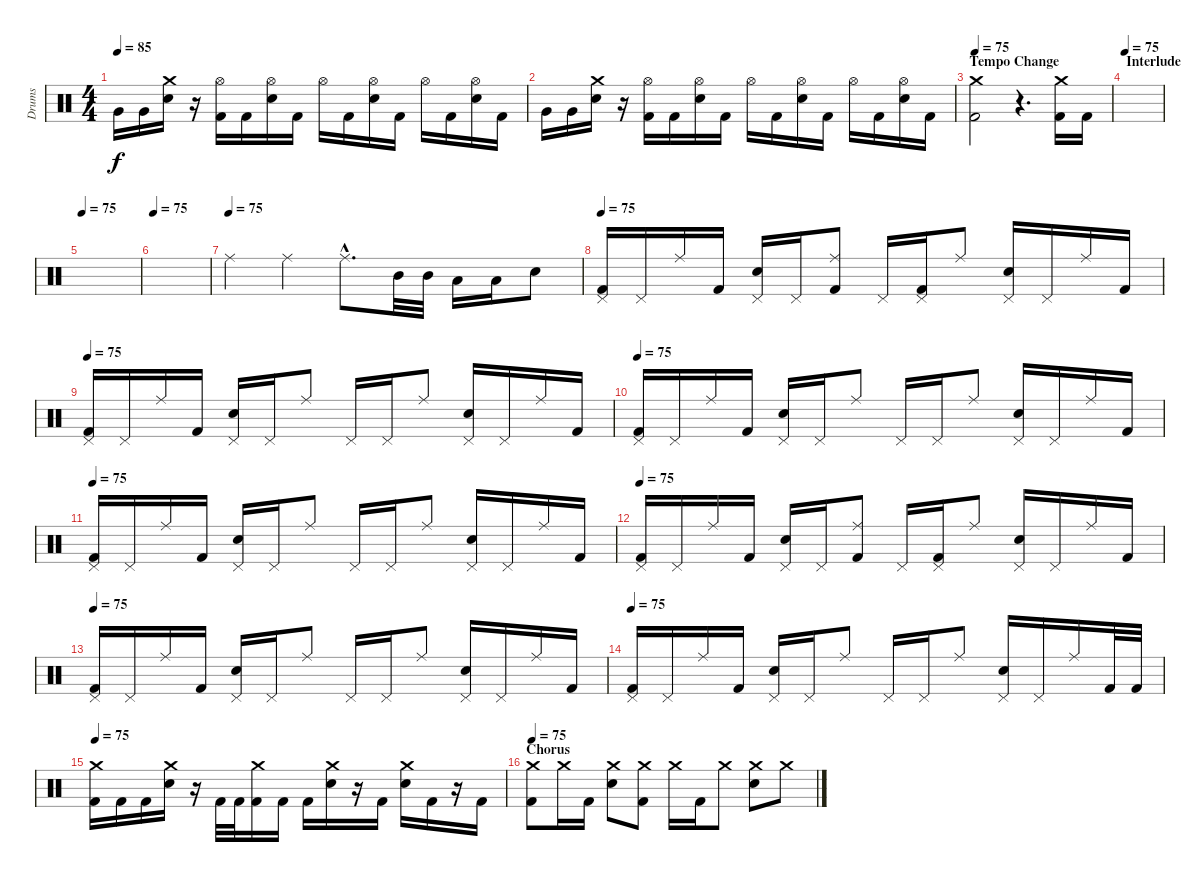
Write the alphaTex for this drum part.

\track ("Drums" "Drums") {instrument percussion}
\staff {score}
\articulation defaults
\ts (4 4)
\tempo 85
\clef neutral
\ks c "Very Low Tom (hit)".16{dy f} "Very Low Tom (hit)".16
("Crash medium (hit)" "Electric Snare (hit)").16 r.16 ("Hi-Hat (open)" "Kick (hit) 2").16 "Kick (hit) 2".16 ("Hi-Hat (open)" "Electric Snare (hit)").16 "Kick (hit) 2".16 "Hi-Hat (open)".16 "Kick (hit) 2".16 ("Hi-Hat (open)" "Electric Snare (hit)").16 "Kick (hit) 2".16 "Hi-Hat (open)".16 "Kick (hit) 2".16 ("Hi-Hat (open)" "Electric Snare (hit)").16 "Kick (hit) 2".16 |
"Very Low Tom (hit)".16 "Very Low Tom (hit)".16 ("Crash medium (hit)" "Electric Snare (hit)").16 r.16 ("Hi-Hat (open)" "Kick (hit) 2").16 "Kick (hit) 2".16 ("Hi-Hat (open)" "Electric Snare (hit)").16 "Kick (hit) 2".16 "Hi-Hat (open)".16 "Kick (hit) 2".16 ("Hi-Hat (open)" "Electric Snare (hit)").16 "Kick (hit) 2".16 "Hi-Hat (open)".16 "Kick (hit) 2".16 ("Hi-Hat (open)" "Electric Snare (hit)").16 "Kick (hit) 2".16 |
\section ("" "Tempo Change")
\tempo 75
("Crash medium (hit)" "Kick (hit) 2").2 r.4{d} ("Crash medium (hit)" "Kick (hit) 2").16 "Kick (hit) 2".16 |
\section ("" "Interlude")
\tempo 75
|
\tempo 75
|
\tempo 75
|
\tempo (75)
"Ride (middle)".4 "Ride (middle)".4 "Ride (middle)"{hac}.8{d} "Mid Tom (hit)".32 "Mid Tom (hit)".32 "Low Tom (hit)".16 "Low Tom (hit)".16 "Electric Snare (hit)".8 |
\section ("" "")
\tempo 75
("Pedal Hi-Hat (hit)" "Kick (hit) 2").16 "Pedal Hi-Hat (hit)".16 "Ride (middle)".16 "Kick (hit) 2".16 ("Pedal Hi-Hat (hit)" "Electric Snare (hit)").16 "Pedal Hi-Hat (hit)".16 ("Ride (middle)" "Kick (hit) 2").8 "Pedal Hi-Hat (hit)".16 ("Pedal Hi-Hat (hit)" "Kick (hit) 2").16 "Ride (middle)".8 ("Pedal Hi-Hat (hit)" "Electric Snare (hit)").16 "Pedal Hi-Hat (hit)".16 "Ride (middle)".16 "Kick (hit) 2".16 |
\tempo 75
("Pedal Hi-Hat (hit)" "Kick (hit) 2").16 "Pedal Hi-Hat (hit)".16 "Ride (middle)".16 "Kick (hit) 2".16 ("Pedal Hi-Hat (hit)" "Electric Snare (hit)").16 "Pedal Hi-Hat (hit)".16 "Ride (middle)".8 "Pedal Hi-Hat (hit)".16 "Pedal Hi-Hat (hit)".16 "Ride (middle)".8 ("Pedal Hi-Hat (hit)" "Electric Snare (hit)").16 "Pedal Hi-Hat (hit)".16 "Ride (middle)".16 "Kick (hit) 2".16 |
\tempo 75
("Pedal Hi-Hat (hit)" "Kick (hit) 2").16 "Pedal Hi-Hat (hit)".16 "Ride (middle)".16 "Kick (hit) 2".16 ("Pedal Hi-Hat (hit)" "Electric Snare (hit)").16 "Pedal Hi-Hat (hit)".16 "Ride (middle)".8 "Pedal Hi-Hat (hit)".16 "Pedal Hi-Hat (hit)".16 "Ride (middle)".8 ("Pedal Hi-Hat (hit)" "Electric Snare (hit)").16 "Pedal Hi-Hat (hit)".16 "Ride (middle)".16 "Kick (hit) 2".16 |
\tempo 75
("Pedal Hi-Hat (hit)" "Kick (hit) 2").16 "Pedal Hi-Hat (hit)".16 "Ride (middle)".16 "Kick (hit) 2".16 ("Pedal Hi-Hat (hit)" "Electric Snare (hit)").16 "Pedal Hi-Hat (hit)".16 "Ride (middle)".8 "Pedal Hi-Hat (hit)".16 "Pedal Hi-Hat (hit)".16 "Ride (middle)".8 ("Pedal Hi-Hat (hit)" "Electric Snare (hit)").16 "Pedal Hi-Hat (hit)".16 "Ride (middle)".16 "Kick (hit) 2".16 |
\tempo 75
("Pedal Hi-Hat (hit)" "Kick (hit) 2").16 "Pedal Hi-Hat (hit)".16 "Ride (middle)".16 "Kick (hit) 2".16 ("Pedal Hi-Hat (hit)" "Electric Snare (hit)").16 "Pedal Hi-Hat (hit)".16 ("Ride (middle)" "Kick (hit) 2").8 "Pedal Hi-Hat (hit)".16 ("Pedal Hi-Hat (hit)" "Kick (hit) 2").16 "Ride (middle)".8 ("Pedal Hi-Hat (hit)" "Electric Snare (hit)").16 "Pedal Hi-Hat (hit)".16 "Ride (middle)".16 "Kick (hit) 2".16 |
\tempo 75
("Pedal Hi-Hat (hit)" "Kick (hit) 2").16 "Pedal Hi-Hat (hit)".16 "Ride (middle)".16 "Kick (hit) 2".16 ("Pedal Hi-Hat (hit)" "Electric Snare (hit)").16 "Pedal Hi-Hat (hit)".16 "Ride (middle)".8 "Pedal Hi-Hat (hit)".16 "Pedal Hi-Hat (hit)".16 "Ride (middle)".8 ("Pedal Hi-Hat (hit)" "Electric Snare (hit)").16 "Pedal Hi-Hat (hit)".16 "Ride (middle)".16 "Kick (hit) 2".16 |
\tempo 75
("Pedal Hi-Hat (hit)" "Kick (hit) 2").16 "Pedal Hi-Hat (hit)".16 "Ride (middle)".16 "Kick (hit) 2".16 ("Pedal Hi-Hat (hit)" "Electric Snare (hit)").16 "Pedal Hi-Hat (hit)".16 "Ride (middle)".8 "Pedal Hi-Hat (hit)".16 "Pedal Hi-Hat (hit)".16 "Ride (middle)".8 ("Pedal Hi-Hat (hit)" "Electric Snare (hit)").16 "Pedal Hi-Hat (hit)".16 "Ride (middle)".16 "Kick (hit) 2".32 "Kick (hit) 2".32 |
\tempo 75
("Crash medium (hit)" "Kick (hit) 2").16 "Kick (hit) 2".16 "Kick (hit) 2".16 ("Crash medium (hit)" "Electric Snare (hit)").16 r.16 "Kick (hit) 2".32 "Kick (hit) 2".32 ("Crash medium (hit)" "Kick (hit) 2").16 "Kick (hit) 2".16 "Kick (hit) 2".16 ("Crash medium (hit)" "Electric Snare (hit)").16 r.16 "Kick (hit) 2".16 ("Crash medium (hit)" "Electric Snare (hit)").16 "Kick (hit) 2".16 r.16 "Kick (hit) 2".16 |
\section ("" "Chorus")
\tempo 75
("Crash medium (hit)" "Kick (hit) 2").8 "Crash medium (hit)".16 "Kick (hit) 2".16 ("Crash medium (hit)" "Electric Snare (hit)").8 ("Crash medium (hit)" "Kick (hit) 2").8 "Crash medium (hit)".16 "Kick (hit) 2".16 "Crash medium (hit)".8 ("Crash medium (hit)" "Electric Snare (hit)").8 "Crash medium (hit)".8
